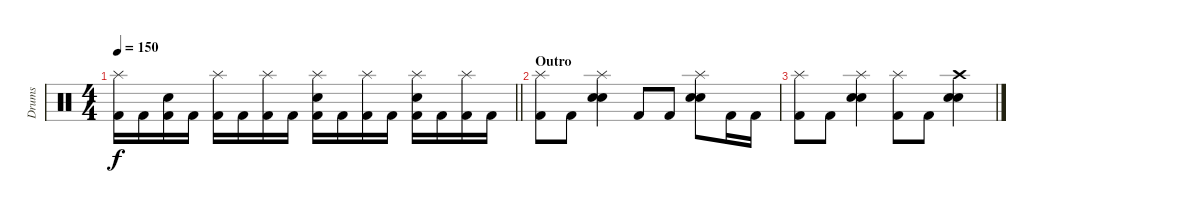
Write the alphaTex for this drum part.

\track ("Drums" "Drums") {instrument percussion}
\staff {score}
\articulation defaults
\ts (4 4)
\tempo 150
\clef neutral
\barLineRight lightlight
\ks c
("Splash (hit)" "Kick (hit) 2").16{dy f} "Kick (hit) 2".16 ("Electric Snare (hit)" "Kick (hit) 2").16 "Kick (hit) 2".16 ("Splash (hit)" "Kick (hit) 2").16 "Kick (hit) 2".16 ("Splash (hit)" "Kick (hit) 2").16 "Kick (hit) 2".16 ("Splash (hit)" "Electric Snare (hit)" "Kick (hit) 2").16 "Kick (hit) 2".16 ("Splash (hit)" "Kick (hit) 2").16 "Kick (hit) 2".16 ("Splash (hit)" "Electric Snare (hit)" "Kick (hit) 2").16 "Kick (hit) 2".16 ("Splash (hit)" "Kick (hit) 2").16 "Kick (hit) 2".16 |
\section ("" "Outro")
("Splash (hit)" "Kick (hit) 2").8 "Kick (hit) 2".8 ("Splash (hit)" "Electric Snare (hit)" "Snare (hit) 2").4 "Kick (hit) 2".8 "Kick (hit) 2".8 ("Splash (hit)" "Electric Snare (hit)" "Snare (hit) 2").8 "Kick (hit) 2".16 "Kick (hit) 2".16 |
("Splash (hit)" "Kick (hit) 2").8 "Kick (hit) 2".8 ("Splash (hit)" "Electric Snare (hit)" "Snare (hit) 2").4 ("Splash (hit)" "Kick (hit) 2").8 "Kick (hit) 2".8 ("Crash high (hit)" "Electric Snare (hit)" "Snare (hit) 2").4
